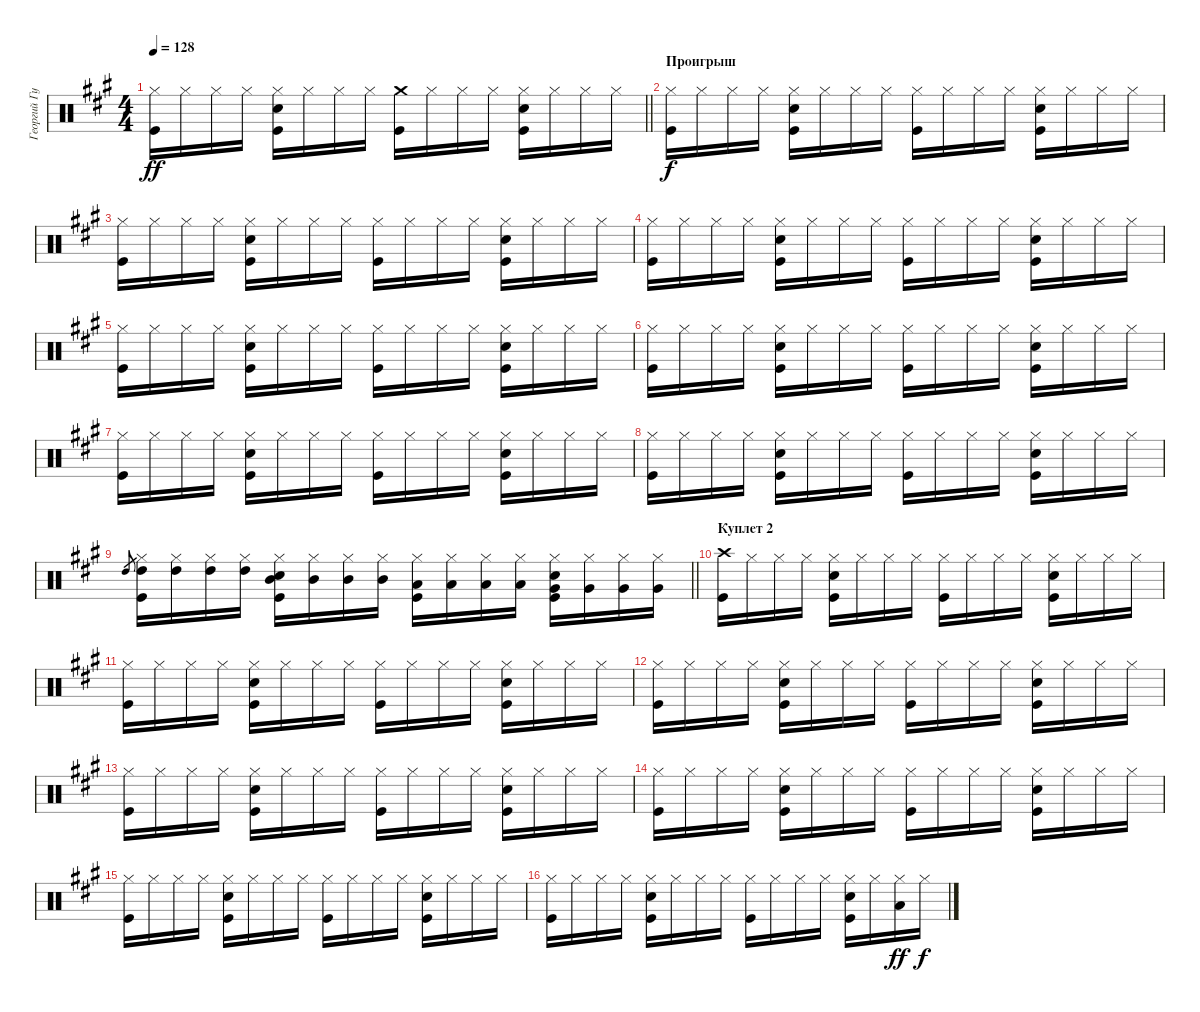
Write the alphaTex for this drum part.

\track ("Георгий Гурьянов" "Георгий Гу") {instrument percussion}
\staff {score}
\articulation defaults
\ts (4 4)
\tempo 128
\clef neutral
\barLineRight lightlight
\ks f#minor
("Hi-Hat (closed)" "Kick (hit)").16{dy ff} "Hi-Hat (closed)".16 "Hi-Hat (closed)".16 "Hi-Hat (closed)".16 ("Hi-Hat (closed)" "Snare (hit) 2" "Kick (hit)").16 "Hi-Hat (closed)".16 "Hi-Hat (closed)".16 "Hi-Hat (closed)".16 ("Crash medium (hit)" "Kick (hit)").16 "Hi-Hat (closed)".16 "Hi-Hat (closed)".16 "Hi-Hat (closed)".16 ("Hi-Hat (closed)" "Snare (hit) 2" "Kick (hit)").16 "Hi-Hat (closed)".16 "Hi-Hat (closed)".16 "Hi-Hat (closed)".16 |
\section ("" "Проигрыш")
("Hi-Hat (closed)" "Kick (hit)").16{dy f} "Hi-Hat (closed)".16 "Hi-Hat (closed)".16 "Hi-Hat (closed)".16 ("Hi-Hat (closed)" "Snare (hit) 2" "Kick (hit)").16 "Hi-Hat (closed)".16 "Hi-Hat (closed)".16 "Hi-Hat (closed)".16 ("Hi-Hat (closed)" "Kick (hit)").16 "Hi-Hat (closed)".16 "Hi-Hat (closed)".16 "Hi-Hat (closed)".16 ("Hi-Hat (closed)" "Snare (hit) 2" "Kick (hit)").16 "Hi-Hat (closed)".16 "Hi-Hat (closed)".16 "Hi-Hat (closed)".16 |
("Hi-Hat (closed)" "Kick (hit)").16 "Hi-Hat (closed)".16 "Hi-Hat (closed)".16 "Hi-Hat (closed)".16 ("Hi-Hat (closed)" "Snare (hit) 2" "Kick (hit)").16 "Hi-Hat (closed)".16 "Hi-Hat (closed)".16 "Hi-Hat (closed)".16 ("Hi-Hat (closed)" "Kick (hit)").16 "Hi-Hat (closed)".16 "Hi-Hat (closed)".16 "Hi-Hat (closed)".16 ("Hi-Hat (closed)" "Snare (hit) 2" "Kick (hit)").16 "Hi-Hat (closed)".16 "Hi-Hat (closed)".16 "Hi-Hat (closed)".16 |
("Hi-Hat (closed)" "Kick (hit)").16 "Hi-Hat (closed)".16 "Hi-Hat (closed)".16 "Hi-Hat (closed)".16 ("Hi-Hat (closed)" "Snare (hit) 2" "Kick (hit)").16 "Hi-Hat (closed)".16 "Hi-Hat (closed)".16 "Hi-Hat (closed)".16 ("Hi-Hat (closed)" "Kick (hit)").16 "Hi-Hat (closed)".16 "Hi-Hat (closed)".16 "Hi-Hat (closed)".16 ("Hi-Hat (closed)" "Snare (hit) 2" "Kick (hit)").16 "Hi-Hat (closed)".16 "Hi-Hat (closed)".16 "Hi-Hat (closed)".16 |
("Hi-Hat (closed)" "Kick (hit)").16 "Hi-Hat (closed)".16 "Hi-Hat (closed)".16 "Hi-Hat (closed)".16 ("Hi-Hat (closed)" "Snare (hit) 2" "Kick (hit)").16 "Hi-Hat (closed)".16 "Hi-Hat (closed)".16 "Hi-Hat (closed)".16 ("Hi-Hat (closed)" "Kick (hit)").16 "Hi-Hat (closed)".16 "Hi-Hat (closed)".16 "Hi-Hat (closed)".16 ("Hi-Hat (closed)" "Snare (hit) 2" "Kick (hit)").16 "Hi-Hat (closed)".16 "Hi-Hat (closed)".16 "Hi-Hat (closed)".16 |
("Hi-Hat (closed)" "Kick (hit)").16 "Hi-Hat (closed)".16 "Hi-Hat (closed)".16 "Hi-Hat (closed)".16 ("Hi-Hat (closed)" "Snare (hit) 2" "Kick (hit)").16 "Hi-Hat (closed)".16 "Hi-Hat (closed)".16 "Hi-Hat (closed)".16 ("Hi-Hat (closed)" "Kick (hit)").16 "Hi-Hat (closed)".16 "Hi-Hat (closed)".16 "Hi-Hat (closed)".16 ("Hi-Hat (closed)" "Snare (hit) 2" "Kick (hit)").16 "Hi-Hat (closed)".16 "Hi-Hat (closed)".16 "Hi-Hat (closed)".16 |
("Hi-Hat (closed)" "Kick (hit)").16 "Hi-Hat (closed)".16 "Hi-Hat (closed)".16 "Hi-Hat (closed)".16 ("Hi-Hat (closed)" "Snare (hit) 2" "Kick (hit)").16 "Hi-Hat (closed)".16 "Hi-Hat (closed)".16 "Hi-Hat (closed)".16 ("Hi-Hat (closed)" "Kick (hit)").16 "Hi-Hat (closed)".16 "Hi-Hat (closed)".16 "Hi-Hat (closed)".16 ("Hi-Hat (closed)" "Snare (hit) 2" "Kick (hit)").16 "Hi-Hat (closed)".16 "Hi-Hat (closed)".16 "Hi-Hat (closed)".16 |
("Hi-Hat (closed)" "Kick (hit)").16 "Hi-Hat (closed)".16 "Hi-Hat (closed)".16 "Hi-Hat (closed)".16 ("Hi-Hat (closed)" "Snare (hit) 2" "Kick (hit)").16 "Hi-Hat (closed)".16 "Hi-Hat (closed)".16 "Hi-Hat (closed)".16 ("Hi-Hat (closed)" "Kick (hit)").16 "Hi-Hat (closed)".16 "Hi-Hat (closed)".16 "Hi-Hat (closed)".16 ("Hi-Hat (closed)" "Snare (hit) 2" "Kick (hit)").16 "Hi-Hat (closed)".16 "Hi-Hat (closed)".16 "Hi-Hat (closed)".16 |
\barLineRight lightlight "High Tom (hit)".8{gr}
("Hi-Hat (closed)" "Kick (hit)" "High Tom (hit)").16 ("Hi-Hat (closed)" "High Tom (hit)").16 ("Hi-Hat (closed)" "High Tom (hit)").16 ("Hi-Hat (closed)" "High Tom (hit)").16 ("Hi-Hat (closed)" "Snare (hit) 2" "Kick (hit)" "Mid Tom (hit)").16 ("Hi-Hat (closed)" "Mid Tom (hit)").16 ("Hi-Hat (closed)" "Mid Tom (hit)").16 ("Hi-Hat (closed)" "Mid Tom (hit)").16 ("Hi-Hat (closed)" "Kick (hit)" "Low Tom (hit)").16 ("Hi-Hat (closed)" "Low Tom (hit)").16 ("Hi-Hat (closed)" "Low Tom (hit)").16 ("Hi-Hat (closed)" "Low Tom (hit)").16 ("Hi-Hat (closed)" "Snare (hit) 2" "Kick (hit)" "Very Low Tom (hit)").16 ("Hi-Hat (closed)" "Very Low Tom (hit)").16 ("Hi-Hat (closed)" "Very Low Tom (hit)").16 ("Hi-Hat (closed)" "Very Low Tom (hit)").16 |
\section ("" "Куплет 2")
("Kick (hit)" "Crash high (hit)").16 "Hi-Hat (closed)".16 "Hi-Hat (closed)".16 "Hi-Hat (closed)".16 ("Hi-Hat (closed)" "Snare (hit) 2" "Kick (hit)").16 "Hi-Hat (closed)".16 "Hi-Hat (closed)".16 "Hi-Hat (closed)".16 ("Hi-Hat (closed)" "Kick (hit)").16 "Hi-Hat (closed)".16 "Hi-Hat (closed)".16 "Hi-Hat (closed)".16 ("Hi-Hat (closed)" "Snare (hit) 2" "Kick (hit)").16 "Hi-Hat (closed)".16 "Hi-Hat (closed)".16 "Hi-Hat (closed)".16 |
("Hi-Hat (closed)" "Kick (hit)").16 "Hi-Hat (closed)".16 "Hi-Hat (closed)".16 "Hi-Hat (closed)".16 ("Hi-Hat (closed)" "Snare (hit) 2" "Kick (hit)").16 "Hi-Hat (closed)".16 "Hi-Hat (closed)".16 "Hi-Hat (closed)".16 ("Hi-Hat (closed)" "Kick (hit)").16 "Hi-Hat (closed)".16 "Hi-Hat (closed)".16 "Hi-Hat (closed)".16 ("Hi-Hat (closed)" "Snare (hit) 2" "Kick (hit)").16 "Hi-Hat (closed)".16 "Hi-Hat (closed)".16 "Hi-Hat (closed)".16 |
("Hi-Hat (closed)" "Kick (hit)").16 "Hi-Hat (closed)".16 "Hi-Hat (closed)".16 "Hi-Hat (closed)".16 ("Hi-Hat (closed)" "Snare (hit) 2" "Kick (hit)").16 "Hi-Hat (closed)".16 "Hi-Hat (closed)".16 "Hi-Hat (closed)".16 ("Hi-Hat (closed)" "Kick (hit)").16 "Hi-Hat (closed)".16 "Hi-Hat (closed)".16 "Hi-Hat (closed)".16 ("Hi-Hat (closed)" "Snare (hit) 2" "Kick (hit)").16 "Hi-Hat (closed)".16 "Hi-Hat (closed)".16 "Hi-Hat (closed)".16 |
("Hi-Hat (closed)" "Kick (hit)").16 "Hi-Hat (closed)".16 "Hi-Hat (closed)".16 "Hi-Hat (closed)".16 ("Hi-Hat (closed)" "Snare (hit) 2" "Kick (hit)").16 "Hi-Hat (closed)".16 "Hi-Hat (closed)".16 "Hi-Hat (closed)".16 ("Hi-Hat (closed)" "Kick (hit)").16 "Hi-Hat (closed)".16 "Hi-Hat (closed)".16 "Hi-Hat (closed)".16 ("Hi-Hat (closed)" "Snare (hit) 2" "Kick (hit)").16 "Hi-Hat (closed)".16 "Hi-Hat (closed)".16 "Hi-Hat (closed)".16 |
("Hi-Hat (closed)" "Kick (hit)").16 "Hi-Hat (closed)".16 "Hi-Hat (closed)".16 "Hi-Hat (closed)".16 ("Hi-Hat (closed)" "Snare (hit) 2" "Kick (hit)").16 "Hi-Hat (closed)".16 "Hi-Hat (closed)".16 "Hi-Hat (closed)".16 ("Hi-Hat (closed)" "Kick (hit)").16 "Hi-Hat (closed)".16 "Hi-Hat (closed)".16 "Hi-Hat (closed)".16 ("Hi-Hat (closed)" "Snare (hit) 2" "Kick (hit)").16 "Hi-Hat (closed)".16 "Hi-Hat (closed)".16 "Hi-Hat (closed)".16 |
("Hi-Hat (closed)" "Kick (hit)").16 "Hi-Hat (closed)".16 "Hi-Hat (closed)".16 "Hi-Hat (closed)".16 ("Hi-Hat (closed)" "Snare (hit) 2" "Kick (hit)").16 "Hi-Hat (closed)".16 "Hi-Hat (closed)".16 "Hi-Hat (closed)".16 ("Hi-Hat (closed)" "Kick (hit)").16 "Hi-Hat (closed)".16 "Hi-Hat (closed)".16 "Hi-Hat (closed)".16 ("Hi-Hat (closed)" "Snare (hit) 2" "Kick (hit)").16 "Hi-Hat (closed)".16 "Hi-Hat (closed)".16 "Hi-Hat (closed)".16 |
("Hi-Hat (closed)" "Kick (hit)").16 "Hi-Hat (closed)".16 "Hi-Hat (closed)".16 "Hi-Hat (closed)".16 ("Hi-Hat (closed)" "Snare (hit) 2" "Kick (hit)").16 "Hi-Hat (closed)".16 "Hi-Hat (closed)".16 "Hi-Hat (closed)".16 ("Hi-Hat (closed)" "Kick (hit)").16 "Hi-Hat (closed)".16 "Hi-Hat (closed)".16 "Hi-Hat (closed)".16 ("Hi-Hat (closed)" "Snare (hit) 2" "Kick (hit)").16 "Hi-Hat (closed)".16 ("Hi-Hat (closed)" "Low Floor Tom (hit)").16{dy ff} "Hi-Hat (closed)".16{dy f}
